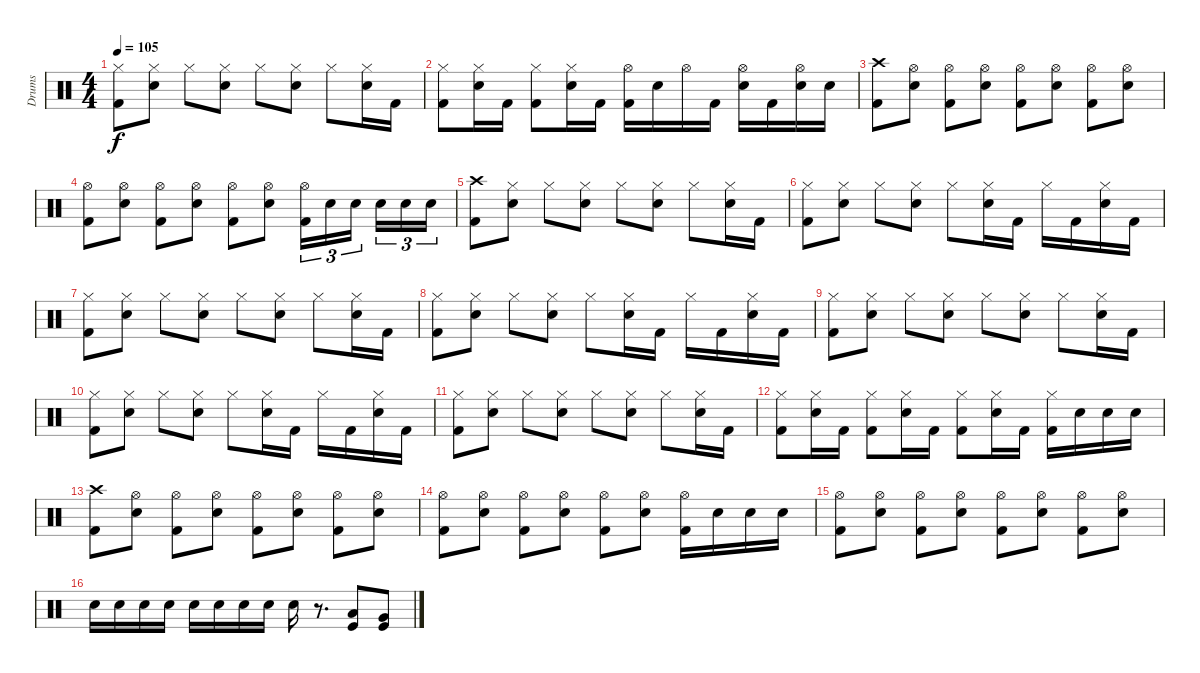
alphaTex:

\track ("Drums" "Drums") {instrument percussion}
\staff {score}
\articulation defaults
\ts (4 4)
\tempo 105
\clef neutral
\ks c
("Hi-Hat (closed)" "Kick (hit) 2").8{dy f} ("Hi-Hat (closed)" "Electric Snare (hit)").8 "Hi-Hat (closed)".8 ("Hi-Hat (closed)" "Electric Snare (hit)").8 "Hi-Hat (closed)".8 ("Hi-Hat (closed)" "Electric Snare (hit)").8 "Hi-Hat (closed)".8 ("Hi-Hat (closed)" "Electric Snare (hit)").16 "Kick (hit) 2".16 |
("Hi-Hat (closed)" "Kick (hit) 2").8 ("Hi-Hat (closed)" "Electric Snare (hit)").16 "Kick (hit) 2".16 ("Hi-Hat (closed)" "Kick (hit) 2").8 ("Hi-Hat (closed)" "Electric Snare (hit)").16 "Kick (hit) 2".16 ("Hi-Hat (open)" "Kick (hit) 2").16 "Electric Snare (hit)".16 "Hi-Hat (open)".16 "Kick (hit) 2".16 ("Hi-Hat (open)" "Electric Snare (hit)").16 "Kick (hit) 2".16 ("Hi-Hat (open)" "Electric Snare (hit)").16 "Electric Snare (hit)".16 |
("Crash high (hit)" "Kick (hit) 2").8 ("Hi-Hat (open)" "Electric Snare (hit)").8 ("Hi-Hat (open)" "Kick (hit) 2").8 ("Hi-Hat (open)" "Electric Snare (hit)").8 ("Hi-Hat (open)" "Kick (hit) 2").8 ("Hi-Hat (open)" "Electric Snare (hit)").8 ("Hi-Hat (open)" "Kick (hit) 2").8 ("Hi-Hat (open)" "Electric Snare (hit)").8 |
("Hi-Hat (open)" "Kick (hit) 2").8 ("Hi-Hat (open)" "Electric Snare (hit)").8 ("Hi-Hat (open)" "Kick (hit) 2").8 ("Hi-Hat (open)" "Electric Snare (hit)").8 ("Hi-Hat (open)" "Kick (hit) 2").8 ("Hi-Hat (open)" "Electric Snare (hit)").8 ("Hi-Hat (open)" "Kick (hit) 2").16{tu (3 2)} "Electric Snare (hit)".16{tu (3 2)} "Electric Snare (hit)".16{tu (3 2)} "Electric Snare (hit)".16{tu (3 2)} "Electric Snare (hit)".16{tu (3 2)} "Electric Snare (hit)".16{tu (3 2)} |
("Crash high (hit)" "Kick (hit) 2").8 ("Hi-Hat (closed)" "Electric Snare (hit)").8 "Hi-Hat (closed)".8 ("Hi-Hat (closed)" "Electric Snare (hit)").8 "Hi-Hat (closed)".8 ("Hi-Hat (closed)" "Electric Snare (hit)").8 "Hi-Hat (closed)".8 ("Hi-Hat (closed)" "Electric Snare (hit)").16 "Kick (hit) 2".16 |
("Hi-Hat (closed)" "Kick (hit) 2").8 ("Hi-Hat (closed)" "Electric Snare (hit)").8 "Hi-Hat (closed)".8 ("Hi-Hat (closed)" "Electric Snare (hit)").8 "Hi-Hat (closed)".8 ("Hi-Hat (closed)" "Electric Snare (hit)").16 "Kick (hit) 2".16 "Hi-Hat (closed)".16 "Kick (hit) 2".16 ("Hi-Hat (closed)" "Electric Snare (hit)").16 "Kick (hit) 2".16 |
("Hi-Hat (closed)" "Kick (hit) 2").8 ("Hi-Hat (closed)" "Electric Snare (hit)").8 "Hi-Hat (closed)".8 ("Hi-Hat (closed)" "Electric Snare (hit)").8 "Hi-Hat (closed)".8 ("Hi-Hat (closed)" "Electric Snare (hit)").8 "Hi-Hat (closed)".8 ("Hi-Hat (closed)" "Electric Snare (hit)").16 "Kick (hit) 2".16 |
("Hi-Hat (closed)" "Kick (hit) 2").8 ("Hi-Hat (closed)" "Electric Snare (hit)").8 "Hi-Hat (closed)".8 ("Hi-Hat (closed)" "Electric Snare (hit)").8 "Hi-Hat (closed)".8 ("Hi-Hat (closed)" "Electric Snare (hit)").16 "Kick (hit) 2".16 "Hi-Hat (closed)".16 "Kick (hit) 2".16 ("Hi-Hat (closed)" "Electric Snare (hit)").16 "Kick (hit) 2".16 |
("Hi-Hat (closed)" "Kick (hit) 2").8 ("Hi-Hat (closed)" "Electric Snare (hit)").8 "Hi-Hat (closed)".8 ("Hi-Hat (closed)" "Electric Snare (hit)").8 "Hi-Hat (closed)".8 ("Hi-Hat (closed)" "Electric Snare (hit)").8 "Hi-Hat (closed)".8 ("Hi-Hat (closed)" "Electric Snare (hit)").16 "Kick (hit) 2".16 |
("Hi-Hat (closed)" "Kick (hit) 2").8 ("Hi-Hat (closed)" "Electric Snare (hit)").8 "Hi-Hat (closed)".8 ("Hi-Hat (closed)" "Electric Snare (hit)").8 "Hi-Hat (closed)".8 ("Hi-Hat (closed)" "Electric Snare (hit)").16 "Kick (hit) 2".16 "Hi-Hat (closed)".16 "Kick (hit) 2".16 ("Hi-Hat (closed)" "Electric Snare (hit)").16 "Kick (hit) 2".16 |
("Hi-Hat (closed)" "Kick (hit) 2").8 ("Hi-Hat (closed)" "Electric Snare (hit)").8 "Hi-Hat (closed)".8 ("Hi-Hat (closed)" "Electric Snare (hit)").8 "Hi-Hat (closed)".8 ("Hi-Hat (closed)" "Electric Snare (hit)").8 "Hi-Hat (closed)".8 ("Hi-Hat (closed)" "Electric Snare (hit)").16 "Kick (hit) 2".16 |
("Hi-Hat (closed)" "Kick (hit) 2").8 ("Hi-Hat (closed)" "Electric Snare (hit)").16 "Kick (hit) 2".16 ("Hi-Hat (closed)" "Kick (hit) 2").8 ("Hi-Hat (closed)" "Electric Snare (hit)").16 "Kick (hit) 2".16 ("Hi-Hat (closed)" "Kick (hit) 2").8 ("Hi-Hat (closed)" "Electric Snare (hit)").16 "Kick (hit) 2".16 ("Hi-Hat (closed)" "Kick (hit) 2").16 "Electric Snare (hit)".16 "Electric Snare (hit)".16 "Electric Snare (hit)".16 |
("Crash high (hit)" "Kick (hit) 2").8 ("Hi-Hat (open)" "Electric Snare (hit)").8 ("Hi-Hat (open)" "Kick (hit) 2").8 ("Hi-Hat (open)" "Electric Snare (hit)").8 ("Hi-Hat (open)" "Kick (hit) 2").8 ("Hi-Hat (open)" "Electric Snare (hit)").8 ("Hi-Hat (open)" "Kick (hit) 2").8 ("Hi-Hat (open)" "Electric Snare (hit)").8 |
("Hi-Hat (open)" "Kick (hit) 2").8 ("Hi-Hat (open)" "Electric Snare (hit)").8 ("Hi-Hat (open)" "Kick (hit) 2").8 ("Hi-Hat (open)" "Electric Snare (hit)").8 ("Hi-Hat (open)" "Kick (hit) 2").8 ("Hi-Hat (open)" "Electric Snare (hit)").8 ("Hi-Hat (open)" "Kick (hit) 2").16 "Electric Snare (hit)".16 "Electric Snare (hit)".16 "Electric Snare (hit)".16 |
("Hi-Hat (open)" "Kick (hit) 2").8 ("Hi-Hat (open)" "Electric Snare (hit)").8 ("Hi-Hat (open)" "Kick (hit) 2").8 ("Hi-Hat (open)" "Electric Snare (hit)").8 ("Hi-Hat (open)" "Kick (hit) 2").8 ("Hi-Hat (open)" "Electric Snare (hit)").8 ("Hi-Hat (open)" "Kick (hit) 2").8 ("Hi-Hat (open)" "Electric Snare (hit)").8 |
"Electric Snare (hit)".16 "Electric Snare (hit)".16 "Electric Snare (hit)".16 "Electric Snare (hit)".16 "Electric Snare (hit)".16 "Electric Snare (hit)".16 "Electric Snare (hit)".16 "Electric Snare (hit)".16 "Electric Snare (hit)".16 r.8{d} ("Low Tom (hit)" "Kick (hit)").8 ("Very Low Tom (hit)" "Kick (hit)").8
